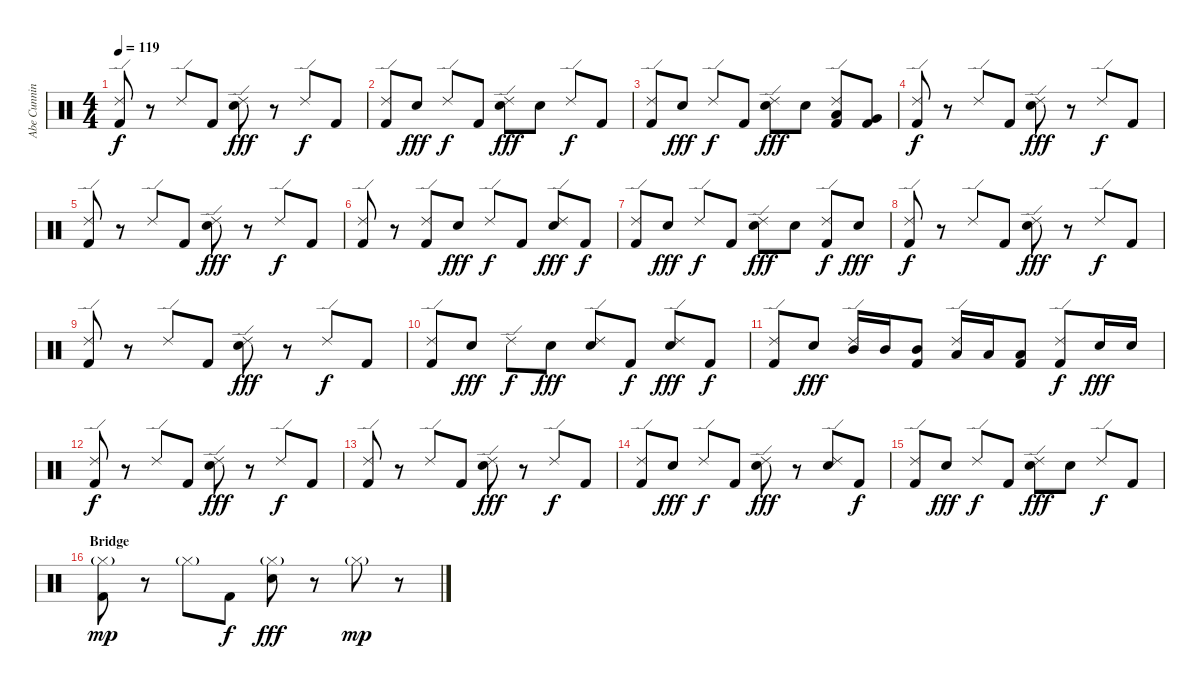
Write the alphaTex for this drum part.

\track ("Abe Cunningham" "Abe Cunnin") {instrument percussion}
\staff {score}
\articulation defaults
\ts (4 4)
\tempo 119
\clef neutral
\ks c
("Ride (edge) 2" "Kick (hit) 2").8{dy f} r.8 "Ride (edge) 2".8 "Kick (hit) 2".8 ("Ride (edge) 2" "Snare (hit) 2").8{dy fff} r.8 "Ride (edge) 2".8{dy f} "Kick (hit) 2".8 |
("Ride (edge) 2" "Kick (hit) 2").8 "Snare (hit) 2".8{dy fff} "Ride (edge) 2".8{dy f} "Kick (hit) 2".8 ("Ride (edge) 2" "Snare (hit) 2").8{dy fff} "Snare (hit) 2".8 "Ride (edge) 2".8{dy f} "Kick (hit) 2".8 |
("Ride (edge) 2" "Kick (hit) 2").8 "Snare (hit) 2".8{dy fff} "Ride (edge) 2".8{dy f} "Kick (hit) 2".8 ("Ride (edge) 2" "Snare (hit) 2").8{dy fff} "Snare (hit) 2".8 ("Ride (edge) 2" "Low Tom (hit)" "Kick (hit) 2").8 ("Very Low Tom (hit)" "Kick (hit) 2").8 |
("Ride (edge) 2" "Kick (hit) 2").8{dy f} r.8 "Ride (edge) 2".8 "Kick (hit) 2".8 ("Ride (edge) 2" "Snare (hit) 2").8{dy fff} r.8 "Ride (edge) 2".8{dy f} "Kick (hit) 2".8 |
("Ride (edge) 2" "Kick (hit) 2").8 r.8 "Ride (edge) 2".8 "Kick (hit) 2".8 ("Ride (edge) 2" "Snare (hit) 2").8{dy fff} r.8 "Ride (edge) 2".8{dy f} "Kick (hit) 2".8 |
("Ride (edge) 2" "Kick (hit) 2").8 r.8 ("Ride (edge) 2" "Kick (hit) 2").8 "Snare (hit) 2".8{dy fff} "Ride (edge) 2".8{dy f} "Kick (hit) 2".8 ("Ride (edge) 2" "Snare (hit) 2").8{dy fff} "Kick (hit) 2".8{dy f} |
("Ride (edge) 2" "Kick (hit) 2").8 "Snare (hit) 2".8{dy fff} "Ride (edge) 2".8{dy f} "Kick (hit) 2".8 ("Ride (edge) 2" "Snare (hit) 2").8{dy fff} "Snare (hit) 2".8 ("Ride (edge) 2" "Kick (hit) 2").8{dy f} "Snare (hit) 2".8{dy fff} |
("Ride (edge) 2" "Kick (hit) 2").8{dy f} r.8 "Ride (edge) 2".8 "Kick (hit) 2".8 ("Ride (edge) 2" "Snare (hit) 2").8{dy fff} r.8 "Ride (edge) 2".8{dy f} "Kick (hit) 2".8 |
("Ride (edge) 2" "Kick (hit) 2").8 r.8 "Ride (edge) 2".8 "Kick (hit) 2".8 ("Ride (edge) 2" "Snare (hit) 2").8{dy fff} r.8 "Ride (edge) 2".8{dy f} "Kick (hit) 2".8 |
("Ride (edge) 2" "Kick (hit) 2").8 "Snare (hit) 2".8{dy fff} "Ride (edge) 2".8{dy f} "Snare (hit) 2".8{dy fff} ("Ride (edge) 2" "Snare (hit) 2").8 "Kick (hit) 2".8{dy f} ("Ride (edge) 2" "Snare (hit) 2").8{dy fff} "Kick (hit) 2".8{dy f} |
("Ride (edge) 2" "Kick (hit) 2").8 "Snare (hit) 2".8{dy fff} ("Ride (edge) 2" "Mid Tom (hit)").16 "Mid Tom (hit)".16 ("Mid Tom (hit)" "Kick (hit) 2").8 ("Ride (edge) 2" "Low Tom (hit)").16 "Low Tom (hit)".16 ("Low Tom (hit)" "Kick (hit) 2").8 ("Ride (edge) 2" "Kick (hit) 2").8{dy f} "Snare (hit) 2".16{dy fff} "Snare (hit) 2".16 |
("Ride (edge) 2" "Kick (hit) 2").8{dy f} r.8 "Ride (edge) 2".8 "Kick (hit) 2".8 ("Ride (edge) 2" "Snare (hit) 2").8{dy fff} r.8 "Ride (edge) 2".8{dy f} "Kick (hit) 2".8 |
("Ride (edge) 2" "Kick (hit) 2").8 r.8 "Ride (edge) 2".8 "Kick (hit) 2".8 ("Ride (edge) 2" "Snare (hit) 2").8{dy fff} r.8 "Ride (edge) 2".8{dy f} "Kick (hit) 2".8 |
("Ride (edge) 2" "Kick (hit) 2").8 "Snare (hit) 2".8{dy fff} "Ride (edge) 2".8{dy f} "Kick (hit) 2".8 ("Ride (edge) 2" "Snare (hit) 2").8{dy fff} r.8 ("Ride (edge) 2" "Snare (hit) 2").8 "Kick (hit) 2".8{dy f} |
("Ride (edge) 2" "Kick (hit) 2").8 "Snare (hit) 2".8{dy fff} "Ride (edge) 2".8{dy f} "Kick (hit) 2".8 ("Ride (edge) 2" "Snare (hit) 2").8{dy fff} "Snare (hit) 2".8 "Ride (edge) 2".8{dy f} "Kick (hit) 2".8 |
\section ("" "Bridge")
("Hi-Hat (closed)"{g} "Kick (hit) 2").8{dy mp} r.8 "Hi-Hat (closed)"{g}.8 "Kick (hit) 2".8{dy f} ("Hi-Hat (closed)"{g} "Snare (hit) 2").8{dy fff} r.8 "Hi-Hat (closed)"{g}.8{dy mp} r.8
